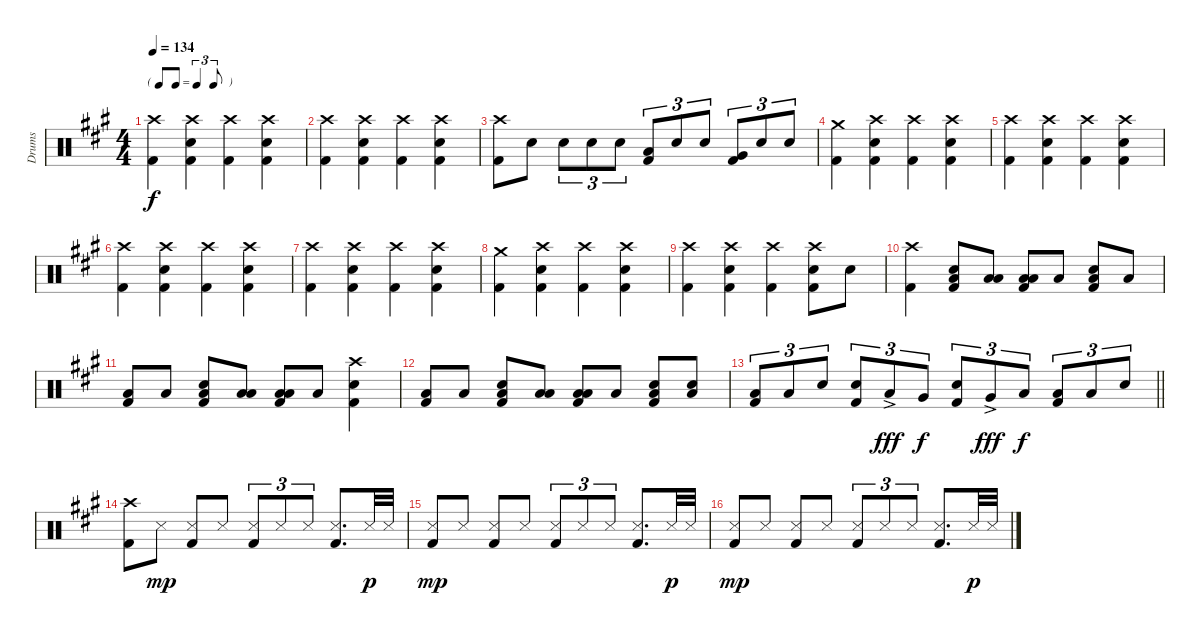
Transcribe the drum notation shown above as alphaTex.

\track ("Drums" "Drums") {instrument percussion}
\staff {score}
\articulation defaults
\ts (4 4)
\tf triplet8th
\tempo 134
\clef neutral
\ks f#minor
("Crash high (hit)" "Kick (hit) 2").4{dy f} ("Crash high (hit)" "Electric Snare (hit)" "Kick (hit) 2").4 ("Crash high (hit)" "Kick (hit) 2").4 ("Crash high (hit)" "Electric Snare (hit)" "Kick (hit) 2").4 |
("Crash high (hit)" "Kick (hit) 2").4 ("Crash high (hit)" "Electric Snare (hit)" "Kick (hit) 2").4 ("Crash high (hit)" "Kick (hit) 2").4 ("Crash high (hit)" "Electric Snare (hit)" "Kick (hit) 2").4 |
("Crash high (hit)" "Kick (hit) 2").8 "Electric Snare (hit)".8 "Electric Snare (hit)".8{tu (3 2)} "Electric Snare (hit)".8{tu (3 2)} "Electric Snare (hit)".8{tu (3 2)} ("Low Tom (hit)" "Kick (hit) 2").8{tu (3 2)} "Electric Snare (hit)".8{tu (3 2)} "Electric Snare (hit)".8{tu (3 2)} ("Very Low Tom (hit)" "Kick (hit) 2").8{tu (3 2)} "Electric Snare (hit)".8{tu (3 2)} "Electric Snare (hit)".8{tu (3 2)} |
("Crash medium (hit)" "Kick (hit) 2").4 ("Crash high (hit)" "Electric Snare (hit)" "Kick (hit) 2").4 ("Crash high (hit)" "Kick (hit) 2").4 ("Crash high (hit)" "Electric Snare (hit)" "Kick (hit) 2").4 |
("Crash high (hit)" "Kick (hit) 2").4 ("Crash high (hit)" "Electric Snare (hit)" "Kick (hit) 2").4 ("Crash high (hit)" "Kick (hit) 2").4 ("Crash high (hit)" "Electric Snare (hit)" "Kick (hit) 2").4 |
("Crash high (hit)" "Kick (hit) 2").4 ("Crash high (hit)" "Electric Snare (hit)" "Kick (hit) 2").4 ("Crash high (hit)" "Kick (hit) 2").4 ("Crash high (hit)" "Electric Snare (hit)" "Kick (hit) 2").4 |
("Crash high (hit)" "Kick (hit) 2").4 ("Crash high (hit)" "Electric Snare (hit)" "Kick (hit) 2").4 ("Crash high (hit)" "Kick (hit) 2").4 ("Crash high (hit)" "Electric Snare (hit)" "Kick (hit) 2").4 |
("Crash medium (hit)" "Kick (hit) 2").4 ("Crash high (hit)" "Electric Snare (hit)" "Kick (hit) 2").4 ("Crash high (hit)" "Kick (hit) 2").4 ("Crash high (hit)" "Electric Snare (hit)" "Kick (hit) 2").4 |
("Crash high (hit)" "Kick (hit) 2").4 ("Crash high (hit)" "Electric Snare (hit)" "Kick (hit) 2").4 ("Crash high (hit)" "Kick (hit) 2").4 ("Crash high (hit)" "Electric Snare (hit)" "Kick (hit) 2").8 "Electric Snare (hit)".8 |
("Crash high (hit)" "Kick (hit) 2").4 ("Electric Snare (hit)" "Low Floor Tom (hit)" "Kick (hit) 2").8 ("Low Tom (hit)" "Low Floor Tom (hit)").8 ("Low Tom (hit)" "Low Floor Tom (hit)" "Kick (hit) 2").8 "Low Floor Tom (hit)".8 ("Electric Snare (hit)" "Low Floor Tom (hit)" "Kick (hit) 2").8 "Low Floor Tom (hit)".8 |
("Low Floor Tom (hit)" "Kick (hit) 2").8 "Low Floor Tom (hit)".8 ("Electric Snare (hit)" "Low Floor Tom (hit)" "Kick (hit) 2").8 ("Low Tom (hit)" "Low Floor Tom (hit)").8 ("Low Tom (hit)" "Low Floor Tom (hit)" "Kick (hit) 2").8 "Low Floor Tom (hit)".8 ("Crash high (hit)" "Electric Snare (hit)" "Kick (hit) 2").4 |
("Low Floor Tom (hit)" "Kick (hit) 2").8 "Low Floor Tom (hit)".8 ("Electric Snare (hit)" "Low Floor Tom (hit)" "Kick (hit) 2").8 ("Low Tom (hit)" "Low Floor Tom (hit)").8 ("Low Tom (hit)" "Low Floor Tom (hit)" "Kick (hit) 2").8 "Low Floor Tom (hit)".8 ("Electric Snare (hit)" "Low Floor Tom (hit)" "Kick (hit) 2").8 ("Electric Snare (hit)" "Low Floor Tom (hit)").8 |
\barLineRight lightlight
("Low Floor Tom (hit)" "Kick (hit) 2").8{tu (3 2)} "Low Floor Tom (hit)".8{tu (3 2)} "Electric Snare (hit)".8{tu (3 2)} ("Electric Snare (hit)" "Kick (hit) 2").8{tu (3 2)} "Low Tom (hit)"{ac}.8{tu (3 2) dy fff} "Very Low Tom (hit)".8{tu (3 2) dy f} ("Electric Snare (hit)" "Kick (hit) 2").8{tu (3 2)} "Very Low Tom (hit)"{ac}.8{tu (3 2) dy fff} "Low Floor Tom (hit)".8{tu (3 2) dy f} ("Low Floor Tom (hit)" "Kick (hit) 2").8{tu (3 2)} "Low Floor Tom (hit)".8{tu (3 2)} "Electric Snare (hit)".8{tu (3 2)} |
("Crash high (hit)" "Kick (hit) 2").8 "Snare (side stick) 3".8{dy mp} ("Snare (side stick) 3" "Kick (hit) 2").8 "Snare (side stick) 3".8 ("Snare (side stick) 3" "Kick (hit) 2").8{tu (3 2)} "Snare (side stick) 3".8{tu (3 2)} "Snare (side stick) 3".8{tu (3 2)} ("Snare (side stick) 3" "Kick (hit) 2").8{d} "Snare (side stick) 3".32{dy p} "Snare (side stick) 3".32 |
("Snare (side stick) 3" "Kick (hit) 2").8{dy mp} "Snare (side stick) 3".8 ("Snare (side stick) 3" "Kick (hit) 2").8 "Snare (side stick) 3".8 ("Snare (side stick) 3" "Kick (hit) 2").8{tu (3 2)} "Snare (side stick) 3".8{tu (3 2)} "Snare (side stick) 3".8{tu (3 2)} ("Snare (side stick) 3" "Kick (hit) 2").8{d} "Snare (side stick) 3".32{dy p} "Snare (side stick) 3".32 |
("Snare (side stick) 3" "Kick (hit) 2").8{dy mp} "Snare (side stick) 3".8 ("Snare (side stick) 3" "Kick (hit) 2").8 "Snare (side stick) 3".8 ("Snare (side stick) 3" "Kick (hit) 2").8{tu (3 2)} "Snare (side stick) 3".8{tu (3 2)} "Snare (side stick) 3".8{tu (3 2)} ("Snare (side stick) 3" "Kick (hit) 2").8{d} "Snare (side stick) 3".32{dy p} "Snare (side stick) 3".32
